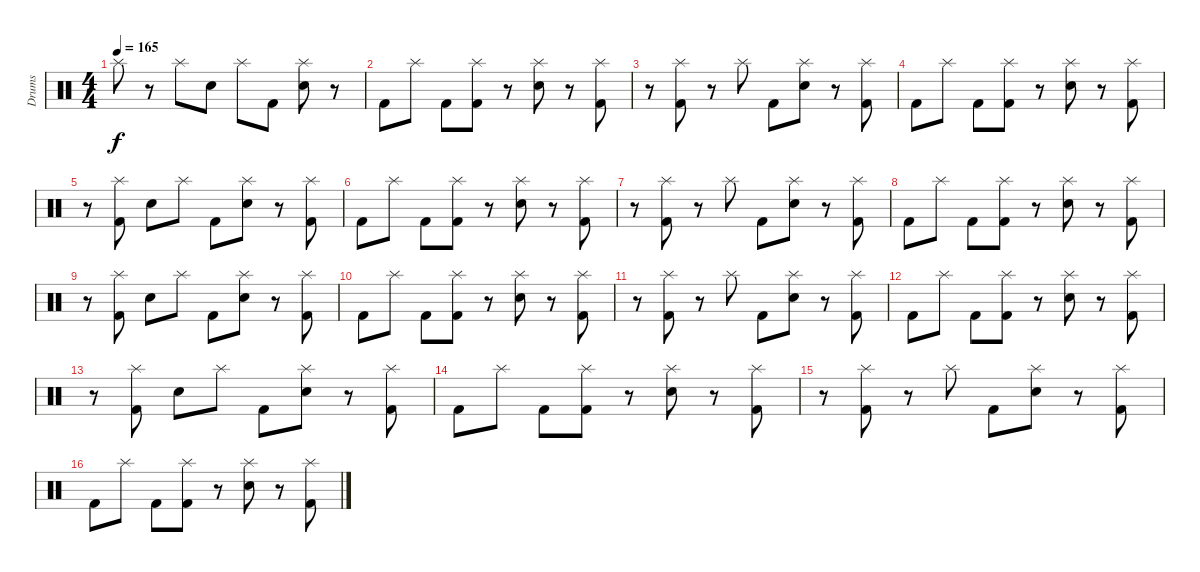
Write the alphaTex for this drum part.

\track ("Drums" "Drums") {instrument percussion}
\staff {score}
\articulation defaults
\ts (4 4)
\tempo 165
\clef neutral
\ks c "Splash (hit)".8{dy f}
r.8 "Splash (hit)".8 "Electric Snare (hit)".8 "Splash (hit)".8 "Kick (hit) 2".8 ("Splash (hit)" "Electric Snare (hit)").8 r.8 |
"Kick (hit) 2".8 "Splash (hit)".8 "Kick (hit) 2".8 ("Splash (hit)" "Kick (hit) 2").8 r.8 ("Splash (hit)" "Electric Snare (hit)").8 r.8 ("Splash (hit)" "Kick (hit) 2").8 |
r.8 ("Splash (hit)" "Kick (hit) 2").8 r.8 "Splash (hit)".8 "Kick (hit) 2".8 ("Splash (hit)" "Electric Snare (hit)").8 r.8 ("Splash (hit)" "Kick (hit) 2").8 |
"Kick (hit) 2".8 "Splash (hit)".8 "Kick (hit) 2".8 ("Splash (hit)" "Kick (hit) 2").8 r.8 ("Splash (hit)" "Electric Snare (hit)").8 r.8 ("Splash (hit)" "Kick (hit) 2").8 |
r.8 ("Splash (hit)" "Kick (hit) 2").8 "Electric Snare (hit)".8 "Splash (hit)".8 "Kick (hit) 2".8 ("Splash (hit)" "Electric Snare (hit)").8 r.8 ("Splash (hit)" "Kick (hit) 2").8 |
"Kick (hit) 2".8 "Splash (hit)".8 "Kick (hit) 2".8 ("Splash (hit)" "Kick (hit) 2").8 r.8 ("Splash (hit)" "Electric Snare (hit)").8 r.8 ("Splash (hit)" "Kick (hit) 2").8 |
r.8 ("Splash (hit)" "Kick (hit) 2").8 r.8 "Splash (hit)".8 "Kick (hit) 2".8 ("Splash (hit)" "Electric Snare (hit)").8 r.8 ("Splash (hit)" "Kick (hit) 2").8 |
"Kick (hit) 2".8 "Splash (hit)".8 "Kick (hit) 2".8 ("Splash (hit)" "Kick (hit) 2").8 r.8 ("Splash (hit)" "Electric Snare (hit)").8 r.8 ("Splash (hit)" "Kick (hit) 2").8 |
r.8 ("Splash (hit)" "Kick (hit) 2").8 "Electric Snare (hit)".8 "Splash (hit)".8 "Kick (hit) 2".8 ("Splash (hit)" "Electric Snare (hit)").8 r.8 ("Splash (hit)" "Kick (hit) 2").8 |
"Kick (hit) 2".8 "Splash (hit)".8 "Kick (hit) 2".8 ("Splash (hit)" "Kick (hit) 2").8 r.8 ("Splash (hit)" "Electric Snare (hit)").8 r.8 ("Splash (hit)" "Kick (hit) 2").8 |
r.8 ("Splash (hit)" "Kick (hit) 2").8 r.8 "Splash (hit)".8 "Kick (hit) 2".8 ("Splash (hit)" "Electric Snare (hit)").8 r.8 ("Splash (hit)" "Kick (hit) 2").8 |
"Kick (hit) 2".8 "Splash (hit)".8 "Kick (hit) 2".8 ("Splash (hit)" "Kick (hit) 2").8 r.8 ("Splash (hit)" "Electric Snare (hit)").8 r.8 ("Splash (hit)" "Kick (hit) 2").8 |
r.8 ("Splash (hit)" "Kick (hit) 2").8 "Electric Snare (hit)".8 "Splash (hit)".8 "Kick (hit) 2".8 ("Splash (hit)" "Electric Snare (hit)").8 r.8 ("Splash (hit)" "Kick (hit) 2").8 |
"Kick (hit) 2".8 "Splash (hit)".8 "Kick (hit) 2".8 ("Splash (hit)" "Kick (hit) 2").8 r.8 ("Splash (hit)" "Electric Snare (hit)").8 r.8 ("Splash (hit)" "Kick (hit) 2").8 |
r.8 ("Splash (hit)" "Kick (hit) 2").8 r.8 "Splash (hit)".8 "Kick (hit) 2".8 ("Splash (hit)" "Electric Snare (hit)").8 r.8 ("Splash (hit)" "Kick (hit) 2").8 |
"Kick (hit) 2".8 "Splash (hit)".8 "Kick (hit) 2".8 ("Splash (hit)" "Kick (hit) 2").8 r.8 ("Splash (hit)" "Electric Snare (hit)").8 r.8 ("Splash (hit)" "Kick (hit) 2").8
